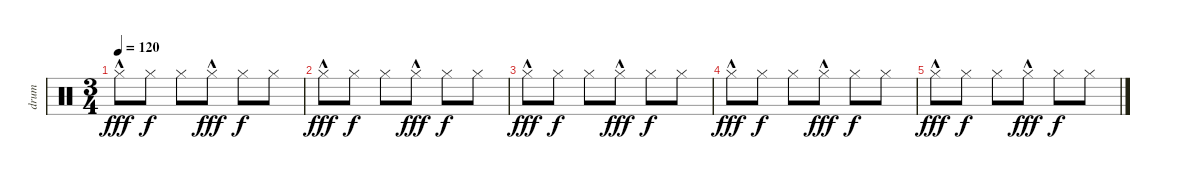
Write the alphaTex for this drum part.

\track ("drum" "drum") {instrument percussion}
\staff {score}
\articulation defaults
\ts (3 4)
\tempo 120
\clef neutral
\ks c "Hi-Hat (closed)"{hac}.8{dy fff} "Hi-Hat (closed)".8{dy f} "Hi-Hat (closed)".8 "Hi-Hat (closed)"{hac}.8{dy fff} "Hi-Hat (closed)".8{dy f} "Hi-Hat (closed)".8
|
"Hi-Hat (closed)"{hac}.8{dy fff} "Hi-Hat (closed)".8{dy f} "Hi-Hat (closed)".8 "Hi-Hat (closed)"{hac}.8{dy fff} "Hi-Hat (closed)".8{dy f} "Hi-Hat (closed)".8 |
"Hi-Hat (closed)"{hac}.8{dy fff} "Hi-Hat (closed)".8{dy f} "Hi-Hat (closed)".8 "Hi-Hat (closed)"{hac}.8{dy fff} "Hi-Hat (closed)".8{dy f} "Hi-Hat (closed)".8 |
"Hi-Hat (closed)"{hac}.8{dy fff} "Hi-Hat (closed)".8{dy f} "Hi-Hat (closed)".8 "Hi-Hat (closed)"{hac}.8{dy fff} "Hi-Hat (closed)".8{dy f} "Hi-Hat (closed)".8 |
"Hi-Hat (closed)"{hac}.8{dy fff} "Hi-Hat (closed)".8{dy f} "Hi-Hat (closed)".8 "Hi-Hat (closed)"{hac}.8{dy fff} "Hi-Hat (closed)".8{dy f} "Hi-Hat (closed)".8
